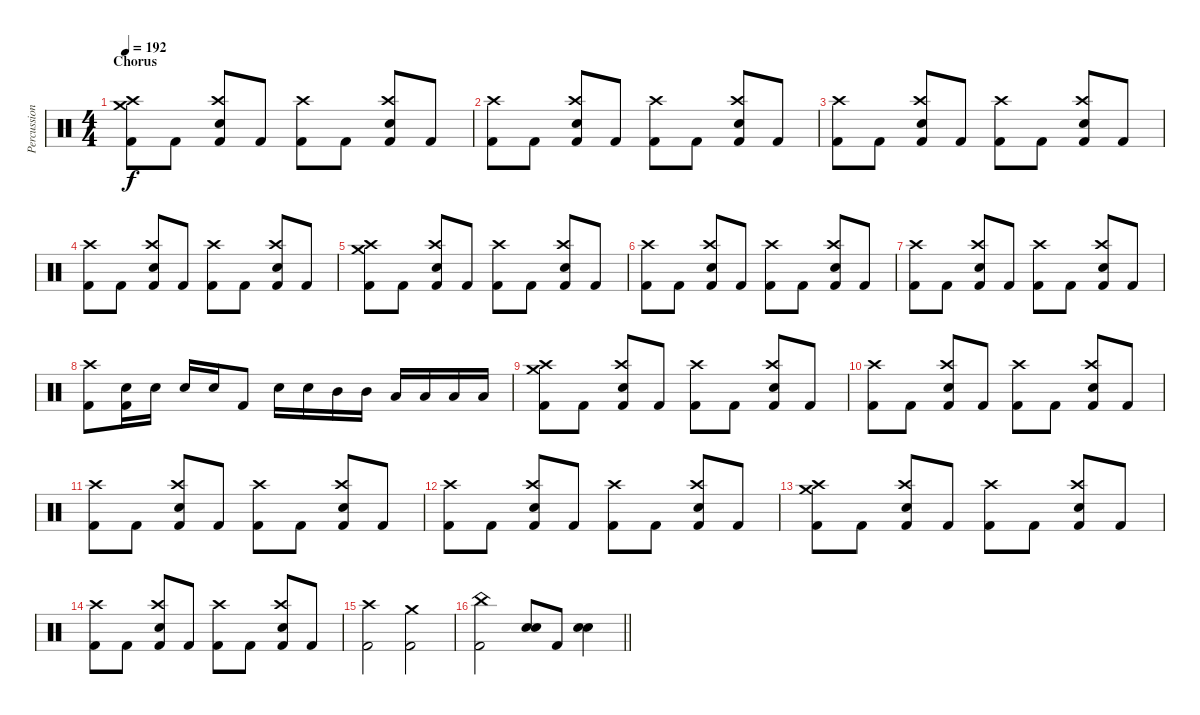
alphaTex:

\track ("Percussion" "Percussion") {instrument percussion}
\staff {score}
\articulation defaults
\ts (4 4)
\section ("" "Chorus")
\tempo 192
\clef neutral
\ks aminor
("Kick (hit) 2" "Crash medium (hit)" "Crash high (hit)").8{dy f} "Kick (hit) 2".8 ("Kick (hit) 2" "Snare (hit) 2" "Crash high (hit)").8 "Kick (hit) 2".8 ("Kick (hit) 2" "Crash high (hit)").8 "Kick (hit) 2".8 ("Kick (hit) 2" "Snare (hit) 2" "Crash high (hit)").8 "Kick (hit) 2".8 |
("Kick (hit) 2" "Crash high (hit)").8 "Kick (hit) 2".8 ("Kick (hit) 2" "Snare (hit) 2" "Crash high (hit)").8 "Kick (hit) 2".8 ("Kick (hit) 2" "Crash high (hit)").8 "Kick (hit) 2".8 ("Kick (hit) 2" "Snare (hit) 2" "Crash high (hit)").8 "Kick (hit) 2".8 |
("Kick (hit) 2" "Crash high (hit)").8 "Kick (hit) 2".8 ("Kick (hit) 2" "Snare (hit) 2" "Crash high (hit)").8 "Kick (hit) 2".8 ("Kick (hit) 2" "Crash high (hit)").8 "Kick (hit) 2".8 ("Kick (hit) 2" "Snare (hit) 2" "Crash high (hit)").8 "Kick (hit) 2".8 |
("Kick (hit) 2" "Crash high (hit)").8 "Kick (hit) 2".8 ("Kick (hit) 2" "Snare (hit) 2" "Crash high (hit)").8 "Kick (hit) 2".8 ("Kick (hit) 2" "Crash high (hit)").8 "Kick (hit) 2".8 ("Kick (hit) 2" "Snare (hit) 2" "Crash high (hit)").8 "Kick (hit) 2".8 |
("Kick (hit) 2" "Crash medium (hit)" "Crash high (hit)").8 "Kick (hit) 2".8 ("Kick (hit) 2" "Snare (hit) 2" "Crash high (hit)").8 "Kick (hit) 2".8 ("Kick (hit) 2" "Crash high (hit)").8 "Kick (hit) 2".8 ("Kick (hit) 2" "Snare (hit) 2" "Crash high (hit)").8 "Kick (hit) 2".8 |
("Kick (hit) 2" "Crash high (hit)").8 "Kick (hit) 2".8 ("Kick (hit) 2" "Snare (hit) 2" "Crash high (hit)").8 "Kick (hit) 2".8 ("Kick (hit) 2" "Crash high (hit)").8 "Kick (hit) 2".8 ("Kick (hit) 2" "Snare (hit) 2" "Crash high (hit)").8 "Kick (hit) 2".8 |
("Kick (hit) 2" "Crash high (hit)").8 "Kick (hit) 2".8 ("Kick (hit) 2" "Snare (hit) 2" "Crash high (hit)").8 "Kick (hit) 2".8 ("Kick (hit) 2" "Crash high (hit)").8 "Kick (hit) 2".8 ("Kick (hit) 2" "Snare (hit) 2" "Crash high (hit)").8 "Kick (hit) 2".8 |
("Kick (hit) 2" "Crash high (hit)").8 ("Kick (hit) 2" "Snare (hit) 2").16 "Snare (hit) 2".16 "Snare (hit) 2".16 "Snare (hit) 2".16 "Kick (hit) 2".8 "Snare (hit) 2".16 "Snare (hit) 2".16 "Mid Tom (hit)".16 "Mid Tom (hit)".16 "Low Tom (hit)".16 "Low Tom (hit)".16 "Low Floor Tom (hit)".16 "Low Floor Tom (hit)".16 |
("Kick (hit) 2" "Crash medium (hit)" "Crash high (hit)").8 "Kick (hit) 2".8 ("Kick (hit) 2" "Snare (hit) 2" "Crash high (hit)").8 "Kick (hit) 2".8 ("Kick (hit) 2" "Crash high (hit)").8 "Kick (hit) 2".8 ("Kick (hit) 2" "Snare (hit) 2" "Crash high (hit)").8 "Kick (hit) 2".8 |
("Kick (hit) 2" "Crash high (hit)").8 "Kick (hit) 2".8 ("Kick (hit) 2" "Snare (hit) 2" "Crash high (hit)").8 "Kick (hit) 2".8 ("Kick (hit) 2" "Crash high (hit)").8 "Kick (hit) 2".8 ("Kick (hit) 2" "Snare (hit) 2" "Crash high (hit)").8 "Kick (hit) 2".8 |
("Kick (hit) 2" "Crash high (hit)").8 "Kick (hit) 2".8 ("Kick (hit) 2" "Snare (hit) 2" "Crash high (hit)").8 "Kick (hit) 2".8 ("Kick (hit) 2" "Crash high (hit)").8 "Kick (hit) 2".8 ("Kick (hit) 2" "Snare (hit) 2" "Crash high (hit)").8 "Kick (hit) 2".8 |
("Kick (hit) 2" "Crash high (hit)").8 "Kick (hit) 2".8 ("Kick (hit) 2" "Snare (hit) 2" "Crash high (hit)").8 "Kick (hit) 2".8 ("Kick (hit) 2" "Crash high (hit)").8 "Kick (hit) 2".8 ("Kick (hit) 2" "Snare (hit) 2" "Crash high (hit)").8 "Kick (hit) 2".8 |
("Kick (hit) 2" "Crash medium (hit)" "Crash high (hit)").8 "Kick (hit) 2".8 ("Kick (hit) 2" "Snare (hit) 2" "Crash high (hit)").8 "Kick (hit) 2".8 ("Kick (hit) 2" "Crash high (hit)").8 "Kick (hit) 2".8 ("Kick (hit) 2" "Snare (hit) 2" "Crash high (hit)").8 "Kick (hit) 2".8 |
("Kick (hit) 2" "Crash high (hit)").8 "Kick (hit) 2".8 ("Kick (hit) 2" "Snare (hit) 2" "Crash high (hit)").8 "Kick (hit) 2".8 ("Kick (hit) 2" "Crash high (hit)").8 "Kick (hit) 2".8 ("Kick (hit) 2" "Snare (hit) 2" "Crash high (hit)").8 "Kick (hit) 2".8 |
("Kick (hit) 2" "Crash high (hit)").2 ("Kick (hit) 2" "Crash medium (hit)").2 |
\barLineRight lightlight
("Kick (hit) 2" "China (hit)").2 ("Snare (hit) 2" "Snare (hit) 2").8 "Kick (hit) 2".8 ("Snare (hit) 2" "Snare (hit) 2").4
